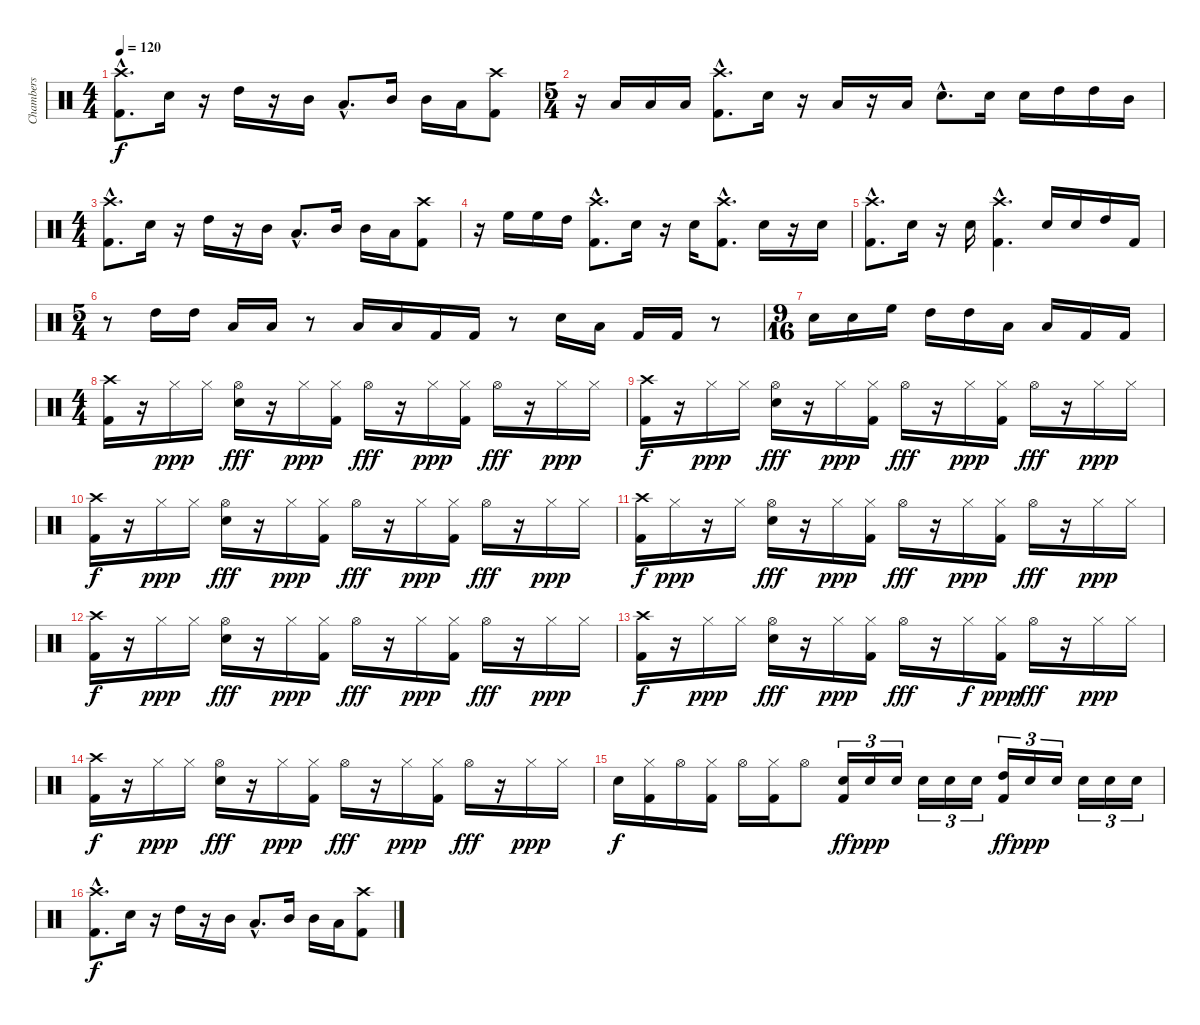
\track ("Chambers" "Chambers") {instrument percussion}
\staff {score}
\articulation defaults
\ts (4 4)
\tempo 120
\clef neutral
\ks c
("Crash high (hit)"{hac} "Kick (hit) 2"{hac}).8{d dy f} "Electric Snare (hit)".16 r.16 "High Tom (hit)".16 r.16 "Mid Tom (hit)".16 "Low Tom (hit)"{hac}.8{d} "Mid Tom (hit)".16 "Mid Tom (hit)".16 "Low Tom (hit)".16 ("Crash high (hit)" "Kick (hit) 2").8 |
\ts (5 4)
r.16 "Low Tom (hit)".16 "Low Tom (hit)".16 "Low Tom (hit)".16 ("Crash high (hit)"{hac} "Kick (hit) 2"{hac}).8{d} "Electric Snare (hit)".16 r.16 "Low Tom (hit)".16 r.16 "Low Tom (hit)".16 "Electric Snare (hit)"{hac}.8{d} "Electric Snare (hit)".16 "Electric Snare (hit)".16 "High Tom (hit)".16 "High Tom (hit)".16 "Mid Tom (hit)".16 |
\ts (4 4)
("Crash high (hit)"{hac} "Kick (hit) 2"{hac}).8{d} "Electric Snare (hit)".16 r.16 "High Tom (hit)".16 r.16 "Mid Tom (hit)".16 "Low Tom (hit)"{hac}.8{d} "Mid Tom (hit)".16 "Mid Tom (hit)".16 "Low Tom (hit)".16 ("Crash high (hit)" "Kick (hit) 2").8 |
r.16 "High Floor Tom (hit)".16 "High Floor Tom (hit)".16 "High Tom (hit)".16 ("Crash high (hit)"{hac} "Kick (hit) 2"{hac}).8{d} "Electric Snare (hit)".16 r.16 "Electric Snare (hit)".16 ("Crash high (hit)"{hac} "Kick (hit) 2"{hac}).8{d} "Electric Snare (hit)".16 r.16 "Electric Snare (hit)".16 |
("Crash high (hit)"{hac} "Kick (hit) 2"{hac}).8{d} "Electric Snare (hit)".16 r.16 "Electric Snare (hit)".16 ("Crash high (hit)"{hac} "Kick (hit) 2"{hac}).4{d} "Electric Snare (hit)".16 "Electric Snare (hit)".16 "High Tom (hit)".16 "Kick (hit) 2".16 |
\ts (5 4)
r.8 "High Tom (hit)".16 "High Tom (hit)".16 "Low Tom (hit)".16 "Low Tom (hit)".16 r.8 "Low Tom (hit)".16 "Low Tom (hit)".16 "Kick (hit) 2".16 "Kick (hit) 2".16 r.8 "Electric Snare (hit)".16 "Low Tom (hit)".16 "Kick (hit) 2".16 "Kick (hit) 2".16 r.8 |
\ts (9 16)
"Electric Snare (hit)".16 "Electric Snare (hit)".16 "High Floor Tom (hit)".16 "High Tom (hit)".16 "High Tom (hit)".16 "Low Tom (hit)".16 "Low Tom (hit)".16 "Kick (hit) 2".16 "Kick (hit) 2".16 |
\ts (4 4)
("Crash high (hit)" "Kick (hit) 2").16 r.16 "Hi-Hat (closed)".16{dy ppp} "Hi-Hat (closed)".16 ("Hi-Hat (open)" "Electric Snare (hit)").16{dy fff} r.16 "Hi-Hat (closed)".16{dy ppp} ("Hi-Hat (closed)" "Kick (hit) 2").16 "Hi-Hat (open)".16{dy fff} r.16 "Hi-Hat (closed)".16{dy ppp} ("Hi-Hat (closed)" "Kick (hit) 2").16 "Hi-Hat (open)".16{dy fff} r.16 "Hi-Hat (closed)".16{dy ppp} "Hi-Hat (closed)".16 |
("Crash high (hit)" "Kick (hit) 2").16{dy f} r.16 "Hi-Hat (closed)".16{dy ppp} "Hi-Hat (closed)".16 ("Hi-Hat (open)" "Electric Snare (hit)").16{dy fff} r.16 "Hi-Hat (closed)".16{dy ppp} ("Hi-Hat (closed)" "Kick (hit) 2").16 "Hi-Hat (open)".16{dy fff} r.16 "Hi-Hat (closed)".16{dy ppp} ("Hi-Hat (closed)" "Kick (hit) 2").16 "Hi-Hat (open)".16{dy fff} r.16 "Hi-Hat (closed)".16{dy ppp} "Hi-Hat (closed)".16 |
("Crash high (hit)" "Kick (hit) 2").16{dy f} r.16 "Hi-Hat (closed)".16{dy ppp} "Hi-Hat (closed)".16 ("Hi-Hat (open)" "Electric Snare (hit)").16{dy fff} r.16 "Hi-Hat (closed)".16{dy ppp} ("Hi-Hat (closed)" "Kick (hit) 2").16 "Hi-Hat (open)".16{dy fff} r.16 "Hi-Hat (closed)".16{dy ppp} ("Hi-Hat (closed)" "Kick (hit) 2").16 "Hi-Hat (open)".16{dy fff} r.16 "Hi-Hat (closed)".16{dy ppp} "Hi-Hat (closed)".16 |
("Crash high (hit)" "Kick (hit) 2").16{dy f} "Hi-Hat (closed)".16{dy ppp} r.16 "Hi-Hat (closed)".16 ("Hi-Hat (open)" "Electric Snare (hit)").16{dy fff} r.16 "Hi-Hat (closed)".16{dy ppp} ("Hi-Hat (closed)" "Kick (hit) 2").16 "Hi-Hat (open)".16{dy fff} r.16 "Hi-Hat (closed)".16{dy ppp} ("Hi-Hat (closed)" "Kick (hit) 2").16 "Hi-Hat (open)".16{dy fff} r.16 "Hi-Hat (closed)".16{dy ppp} "Hi-Hat (closed)".16 |
("Crash high (hit)" "Kick (hit) 2").16{dy f} r.16 "Hi-Hat (closed)".16{dy ppp} "Hi-Hat (closed)".16 ("Hi-Hat (open)" "Electric Snare (hit)").16{dy fff} r.16 "Hi-Hat (closed)".16{dy ppp} ("Hi-Hat (closed)" "Kick (hit) 2").16 "Hi-Hat (open)".16{dy fff} r.16 "Hi-Hat (closed)".16{dy ppp} ("Hi-Hat (closed)" "Kick (hit) 2").16 "Hi-Hat (open)".16{dy fff} r.16 "Hi-Hat (closed)".16{dy ppp} "Hi-Hat (closed)".16 |
("Crash high (hit)" "Kick (hit) 2").16{dy f} r.16 "Hi-Hat (closed)".16{dy ppp} "Hi-Hat (closed)".16 ("Hi-Hat (open)" "Electric Snare (hit)").16{dy fff} r.16 "Hi-Hat (closed)".16{dy ppp} ("Hi-Hat (closed)" "Kick (hit) 2").16 "Hi-Hat (open)".16{dy fff} r.16 "Hi-Hat (closed)".16{dy f} ("Hi-Hat (closed)" "Kick (hit) 2").16{dy ppp} "Hi-Hat (open)".16{dy fff} r.16 "Hi-Hat (closed)".16{dy ppp} "Hi-Hat (closed)".16 |
("Crash high (hit)" "Kick (hit) 2").16{dy f} r.16 "Hi-Hat (closed)".16{dy ppp} "Hi-Hat (closed)".16 ("Hi-Hat (open)" "Electric Snare (hit)").16{dy fff} r.16 "Hi-Hat (closed)".16{dy ppp} ("Hi-Hat (closed)" "Kick (hit) 2").16 "Hi-Hat (open)".16{dy fff} r.16 "Hi-Hat (closed)".16{dy ppp} ("Hi-Hat (closed)" "Kick (hit) 2").16 "Hi-Hat (open)".16{dy fff} r.16 "Hi-Hat (closed)".16{dy ppp} "Hi-Hat (closed)".16 |
"Electric Snare (hit)".16{dy f} ("Hi-Hat (closed)" "Kick (hit) 2").16 "Hi-Hat (open)".16 ("Hi-Hat (closed)" "Kick (hit) 2").16 "Hi-Hat (open)".16 ("Hi-Hat (closed)" "Kick (hit) 2").16 "Hi-Hat (open)".8 ("Electric Snare (hit)" "Kick (hit) 2").16{tu (3 2) dy ff} "Electric Snare (hit)".16{tu (3 2) dy ppp} "Electric Snare (hit)".16{tu (3 2)} "Electric Snare (hit)".16{tu (3 2)} "Electric Snare (hit)".16{tu (3 2)} "Electric Snare (hit)".16{tu (3 2)} ("High Tom (hit)" "Kick (hit) 2").16{tu (3 2) dy ff} "Electric Snare (hit)".16{tu (3 2) dy ppp} "Electric Snare (hit)".16{tu (3 2)} "Electric Snare (hit)".16{tu (3 2)} "Electric Snare (hit)".16{tu (3 2)} "Electric Snare (hit)".16{tu (3 2)} |
("Crash high (hit)"{hac} "Kick (hit) 2"{hac}).8{d dy f} "Electric Snare (hit)".16 r.16 "High Tom (hit)".16 r.16 "Mid Tom (hit)".16 "Low Tom (hit)"{hac}.8{d} "Mid Tom (hit)".16 "Mid Tom (hit)".16 "Low Tom (hit)".16 ("Crash high (hit)" "Kick (hit) 2").8
